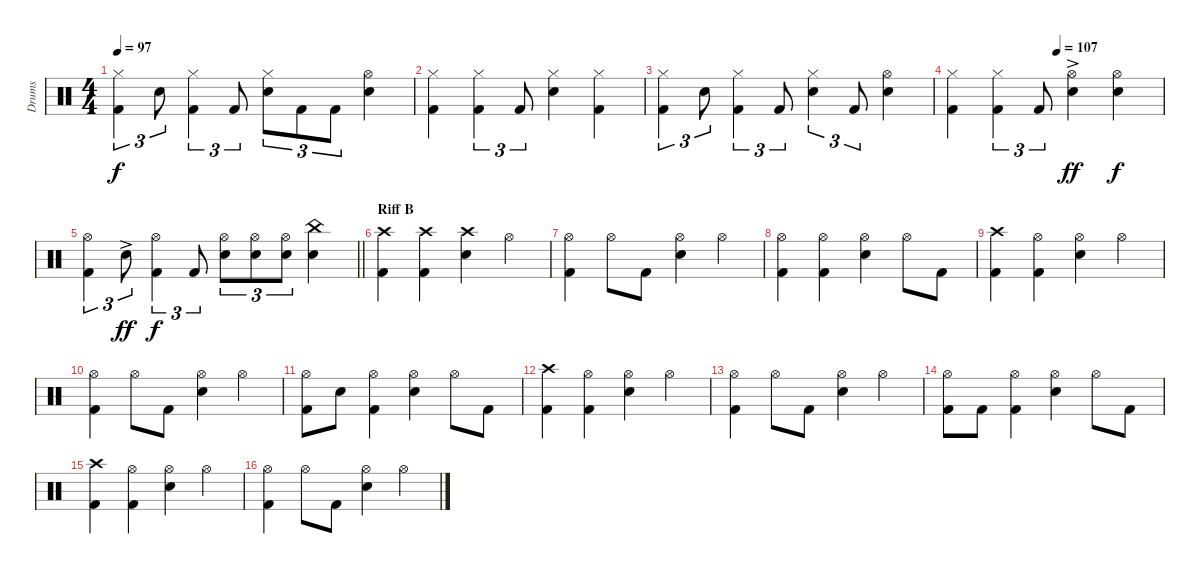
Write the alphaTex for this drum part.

\track ("Drums" "Drums") {instrument percussion}
\staff {score}
\articulation defaults
\ts (4 4)
\tempo 97
\clef neutral
\ks c
("Hi-Hat (closed)" "Kick (hit) 2").4{tu (3 2) dy f} "Electric Snare (hit)".8{tu (3 2)} ("Hi-Hat (closed)" "Kick (hit) 2").4{tu (3 2)} "Kick (hit) 2".8{tu (3 2)} ("Hi-Hat (closed)" "Electric Snare (hit)").8{tu (3 2)} "Kick (hit) 2".8{tu (3 2)} "Kick (hit) 2".8{tu (3 2)} ("Hi-Hat (open)" "Electric Snare (hit)").4 |
("Hi-Hat (closed)" "Kick (hit) 2").4 ("Hi-Hat (closed)" "Kick (hit) 2").4{tu (3 2)} "Kick (hit) 2".8{tu (3 2)} ("Hi-Hat (closed)" "Electric Snare (hit)").4 ("Hi-Hat (closed)" "Kick (hit) 2").4 |
("Hi-Hat (closed)" "Kick (hit) 2").4{tu (3 2)} "Electric Snare (hit)".8{tu (3 2)} ("Hi-Hat (closed)" "Kick (hit) 2").4{tu (3 2)} "Kick (hit) 2".8{tu (3 2)} ("Hi-Hat (closed)" "Electric Snare (hit)").4{tu (3 2)} "Kick (hit) 2".8{tu (3 2)} ("Hi-Hat (open)" "Electric Snare (hit)").4 |
\tempo (107 0.5)
("Hi-Hat (closed)" "Kick (hit) 2").4 ("Hi-Hat (closed)" "Kick (hit) 2").4{tu (3 2)} "Kick (hit) 2".8{tu (3 2)} ("Hi-Hat (open)" "Electric Snare (hit)"{ac}).4{dy ff} ("Hi-Hat (open)" "Electric Snare (hit)").4{dy f} |
\barLineRight lightlight
("Hi-Hat (open)" "Kick (hit) 2").4{tu (3 2)} "Electric Snare (hit)"{ac}.8{tu (3 2) dy ff} ("Hi-Hat (open)" "Kick (hit) 2").4{tu (3 2) dy f} "Kick (hit) 2".8{tu (3 2)} ("Hi-Hat (open)" "Electric Snare (hit)").8{tu (3 2)} ("Hi-Hat (open)" "Electric Snare (hit)").8{tu (3 2)} ("Hi-Hat (open)" "Electric Snare (hit)").8{tu (3 2)} ("China (hit)" "Electric Snare (hit)").4 |
\section ("" "Riff B")
("Crash high (hit)" "Kick (hit) 2").4 ("Crash high (hit)" "Kick (hit) 2").4 ("Crash high (hit)" "Electric Snare (hit)").4 "Hi-Hat (open)".4 |
("Hi-Hat (open)" "Kick (hit) 2").4 "Hi-Hat (open)".8 "Kick (hit) 2".8 ("Hi-Hat (open)" "Electric Snare (hit)").4 "Hi-Hat (open)".4 |
("Hi-Hat (open)" "Kick (hit) 2").4 ("Hi-Hat (open)" "Kick (hit) 2").4 ("Hi-Hat (open)" "Electric Snare (hit)").4 "Hi-Hat (open)".8 "Kick (hit) 2".8 |
("Crash high (hit)" "Kick (hit) 2").4 ("Hi-Hat (open)" "Kick (hit) 2").4 ("Hi-Hat (open)" "Electric Snare (hit)").4 "Hi-Hat (open)".4 |
("Hi-Hat (open)" "Kick (hit) 2").4 "Hi-Hat (open)".8 "Kick (hit) 2".8 ("Hi-Hat (open)" "Electric Snare (hit)").4 "Hi-Hat (open)".4 |
("Hi-Hat (open)" "Kick (hit) 2").8 "Electric Snare (hit)".8 ("Hi-Hat (open)" "Kick (hit) 2").4 ("Hi-Hat (open)" "Electric Snare (hit)").4 "Hi-Hat (open)".8 "Kick (hit) 2".8 |
("Crash high (hit)" "Kick (hit) 2").4 ("Hi-Hat (open)" "Kick (hit) 2").4 ("Hi-Hat (open)" "Electric Snare (hit)").4 "Hi-Hat (open)".4 |
("Hi-Hat (open)" "Kick (hit) 2").4 "Hi-Hat (open)".8 "Kick (hit) 2".8 ("Hi-Hat (open)" "Electric Snare (hit)").4 "Hi-Hat (open)".4 |
("Hi-Hat (open)" "Kick (hit) 2").8 "Kick (hit) 2".8 ("Hi-Hat (open)" "Kick (hit) 2").4 ("Hi-Hat (open)" "Electric Snare (hit)").4 "Hi-Hat (open)".8 "Kick (hit) 2".8 |
("Crash high (hit)" "Kick (hit) 2").4 ("Hi-Hat (open)" "Kick (hit) 2").4 ("Hi-Hat (open)" "Electric Snare (hit)").4 "Hi-Hat (open)".4 |
("Hi-Hat (open)" "Kick (hit) 2").4 "Hi-Hat (open)".8 "Kick (hit) 2".8 ("Hi-Hat (open)" "Electric Snare (hit)").4 "Hi-Hat (open)".4
